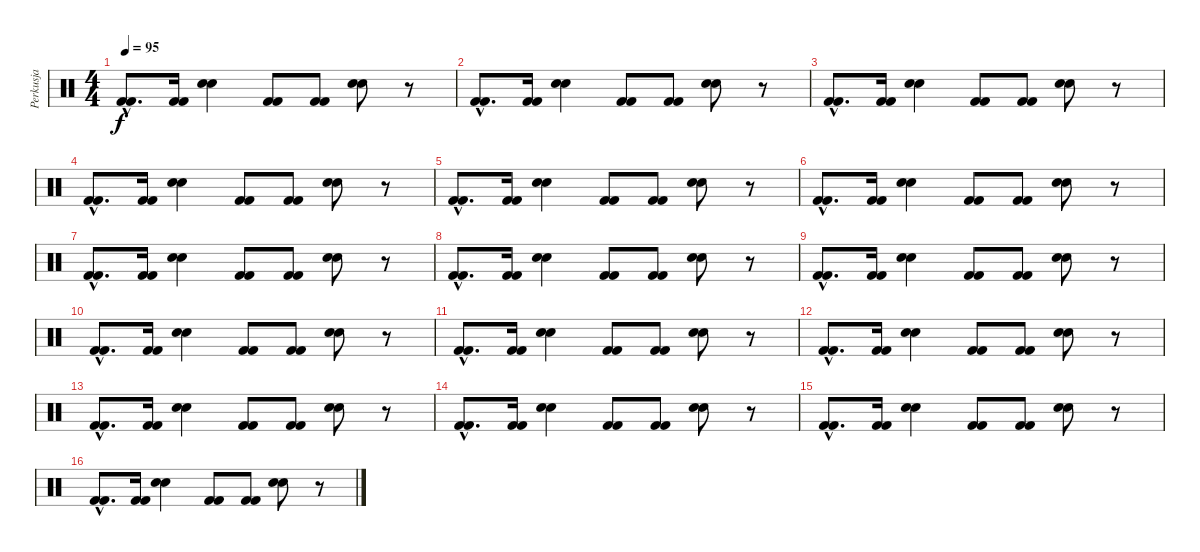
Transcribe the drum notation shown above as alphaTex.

\track ("Perkusja" "Perkusja") {instrument percussion}
\staff {score}
\articulation defaults
\ts (4 4)
\tempo 95
\clef neutral
\ks c
("Kick (hit) 2"{hac} "Kick (hit) 2"{hac}).8{d dy f} ("Kick (hit) 2" "Kick (hit) 2").16 ("Electric Snare (hit)" "Hand Clap (hit)").4 ("Kick (hit) 2" "Kick (hit) 2").8 ("Kick (hit) 2" "Kick (hit) 2").8 ("Electric Snare (hit)" "Hand Clap (hit)").8 r.8 |
("Kick (hit) 2"{hac} "Kick (hit) 2"{hac}).8{d} ("Kick (hit) 2" "Kick (hit) 2").16 ("Electric Snare (hit)" "Hand Clap (hit)").4 ("Kick (hit) 2" "Kick (hit) 2").8 ("Kick (hit) 2" "Kick (hit) 2").8 ("Electric Snare (hit)" "Hand Clap (hit)").8 r.8 |
("Kick (hit) 2"{hac} "Kick (hit) 2"{hac}).8{d} ("Kick (hit) 2" "Kick (hit) 2").16 ("Electric Snare (hit)" "Hand Clap (hit)").4 ("Kick (hit) 2" "Kick (hit) 2").8 ("Kick (hit) 2" "Kick (hit) 2").8 ("Electric Snare (hit)" "Hand Clap (hit)").8 r.8 |
("Kick (hit) 2"{hac} "Kick (hit) 2"{hac}).8{d} ("Kick (hit) 2" "Kick (hit) 2").16 ("Electric Snare (hit)" "Hand Clap (hit)").4 ("Kick (hit) 2" "Kick (hit) 2").8 ("Kick (hit) 2" "Kick (hit) 2").8 ("Electric Snare (hit)" "Hand Clap (hit)").8 r.8 |
("Kick (hit) 2"{hac} "Kick (hit) 2"{hac}).8{d} ("Kick (hit) 2" "Kick (hit) 2").16 ("Electric Snare (hit)" "Hand Clap (hit)").4 ("Kick (hit) 2" "Kick (hit) 2").8 ("Kick (hit) 2" "Kick (hit) 2").8 ("Electric Snare (hit)" "Hand Clap (hit)").8 r.8 |
("Kick (hit) 2"{hac} "Kick (hit) 2"{hac}).8{d} ("Kick (hit) 2" "Kick (hit) 2").16 ("Electric Snare (hit)" "Hand Clap (hit)").4 ("Kick (hit) 2" "Kick (hit) 2").8 ("Kick (hit) 2" "Kick (hit) 2").8 ("Electric Snare (hit)" "Hand Clap (hit)").8 r.8 |
("Kick (hit) 2"{hac} "Kick (hit) 2"{hac}).8{d} ("Kick (hit) 2" "Kick (hit) 2").16 ("Electric Snare (hit)" "Hand Clap (hit)").4 ("Kick (hit) 2" "Kick (hit) 2").8 ("Kick (hit) 2" "Kick (hit) 2").8 ("Electric Snare (hit)" "Hand Clap (hit)").8 r.8 |
("Kick (hit) 2"{hac} "Kick (hit) 2"{hac}).8{d} ("Kick (hit) 2" "Kick (hit) 2").16 ("Electric Snare (hit)" "Hand Clap (hit)").4 ("Kick (hit) 2" "Kick (hit) 2").8 ("Kick (hit) 2" "Kick (hit) 2").8 ("Electric Snare (hit)" "Hand Clap (hit)").8 r.8 |
("Kick (hit) 2"{hac} "Kick (hit) 2"{hac}).8{d} ("Kick (hit) 2" "Kick (hit) 2").16 ("Electric Snare (hit)" "Hand Clap (hit)").4 ("Kick (hit) 2" "Kick (hit) 2").8 ("Kick (hit) 2" "Kick (hit) 2").8 ("Electric Snare (hit)" "Hand Clap (hit)").8 r.8 |
("Kick (hit) 2"{hac} "Kick (hit) 2"{hac}).8{d} ("Kick (hit) 2" "Kick (hit) 2").16 ("Electric Snare (hit)" "Hand Clap (hit)").4 ("Kick (hit) 2" "Kick (hit) 2").8 ("Kick (hit) 2" "Kick (hit) 2").8 ("Electric Snare (hit)" "Hand Clap (hit)").8 r.8 |
("Kick (hit) 2"{hac} "Kick (hit) 2"{hac}).8{d} ("Kick (hit) 2" "Kick (hit) 2").16 ("Electric Snare (hit)" "Hand Clap (hit)").4 ("Kick (hit) 2" "Kick (hit) 2").8 ("Kick (hit) 2" "Kick (hit) 2").8 ("Electric Snare (hit)" "Hand Clap (hit)").8 r.8 |
("Kick (hit) 2"{hac} "Kick (hit) 2"{hac}).8{d} ("Kick (hit) 2" "Kick (hit) 2").16 ("Electric Snare (hit)" "Hand Clap (hit)").4 ("Kick (hit) 2" "Kick (hit) 2").8 ("Kick (hit) 2" "Kick (hit) 2").8 ("Electric Snare (hit)" "Hand Clap (hit)").8 r.8 |
("Kick (hit) 2"{hac} "Kick (hit) 2"{hac}).8{d} ("Kick (hit) 2" "Kick (hit) 2").16 ("Electric Snare (hit)" "Hand Clap (hit)").4 ("Kick (hit) 2" "Kick (hit) 2").8 ("Kick (hit) 2" "Kick (hit) 2").8 ("Electric Snare (hit)" "Hand Clap (hit)").8 r.8 |
("Kick (hit) 2"{hac} "Kick (hit) 2"{hac}).8{d} ("Kick (hit) 2" "Kick (hit) 2").16 ("Electric Snare (hit)" "Hand Clap (hit)").4 ("Kick (hit) 2" "Kick (hit) 2").8 ("Kick (hit) 2" "Kick (hit) 2").8 ("Electric Snare (hit)" "Hand Clap (hit)").8 r.8 |
("Kick (hit) 2"{hac} "Kick (hit) 2"{hac}).8{d} ("Kick (hit) 2" "Kick (hit) 2").16 ("Electric Snare (hit)" "Hand Clap (hit)").4 ("Kick (hit) 2" "Kick (hit) 2").8 ("Kick (hit) 2" "Kick (hit) 2").8 ("Electric Snare (hit)" "Hand Clap (hit)").8 r.8 |
("Kick (hit) 2"{hac} "Kick (hit) 2"{hac}).8{d} ("Kick (hit) 2" "Kick (hit) 2").16 ("Electric Snare (hit)" "Hand Clap (hit)").4 ("Kick (hit) 2" "Kick (hit) 2").8 ("Kick (hit) 2" "Kick (hit) 2").8 ("Electric Snare (hit)" "Hand Clap (hit)").8 r.8
